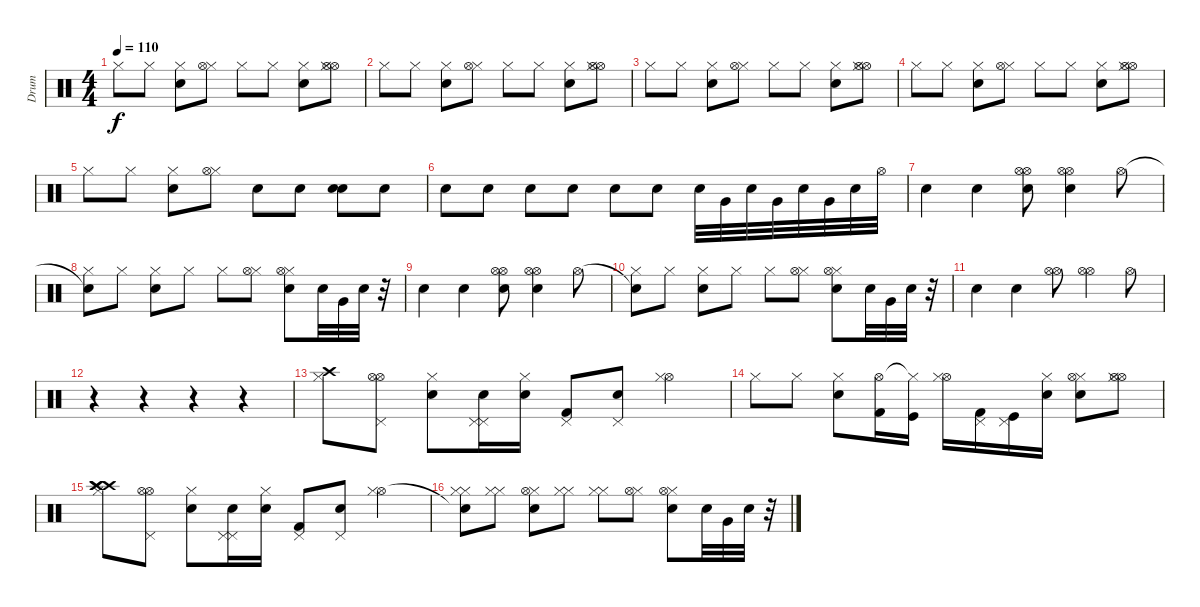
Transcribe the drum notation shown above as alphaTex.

\track ("Drum" "Drum") {instrument percussion}
\staff {score}
\articulation defaults
\ts (4 4)
\tempo 110
\clef neutral
\ks c "Hi-Hat (closed)".8{dy f} "Hi-Hat (closed)".8
("Electric Snare (hit)" "Hi-Hat (closed)").8 ("Hi-Hat (closed)" "Hi-Hat (open)").8 "Hi-Hat (closed)".8 "Hi-Hat (closed)".8 ("Electric Snare (hit)" "Hi-Hat (closed)").8 ("Hi-Hat (open)" "Hi-Hat (closed)" "Hi-Hat (open)").8 |
"Hi-Hat (closed)".8 "Hi-Hat (closed)".8 ("Electric Snare (hit)" "Hi-Hat (closed)").8 ("Hi-Hat (closed)" "Hi-Hat (open)").8 "Hi-Hat (closed)".8 "Hi-Hat (closed)".8 ("Electric Snare (hit)" "Hi-Hat (closed)").8 ("Hi-Hat (open)" "Hi-Hat (closed)" "Hi-Hat (open)").8 |
"Hi-Hat (closed)".8 "Hi-Hat (closed)".8 ("Electric Snare (hit)" "Hi-Hat (closed)").8 ("Hi-Hat (closed)" "Hi-Hat (open)").8 "Hi-Hat (closed)".8 "Hi-Hat (closed)".8 ("Electric Snare (hit)" "Hi-Hat (closed)").8 ("Hi-Hat (open)" "Hi-Hat (closed)" "Hi-Hat (open)").8 |
"Hi-Hat (closed)".8 "Hi-Hat (closed)".8 ("Electric Snare (hit)" "Hi-Hat (closed)").8 ("Hi-Hat (closed)" "Hi-Hat (open)").8 "Hi-Hat (closed)".8 "Hi-Hat (closed)".8 ("Electric Snare (hit)" "Hi-Hat (closed)").8 ("Hi-Hat (open)" "Hi-Hat (closed)" "Hi-Hat (open)").8 |
"Hi-Hat (closed)".8 "Hi-Hat (closed)".8 ("Electric Snare (hit)" "Hi-Hat (closed)").8 ("Hi-Hat (closed)" "Hi-Hat (open)").8 "Electric Snare (hit)".8 "Electric Snare (hit)".8 ("Electric Snare (hit)" "Electric Snare (hit)").8 "Electric Snare (hit)".8 |
"Electric Snare (hit)".8 "Electric Snare (hit)".8 "Electric Snare (hit)".8 "Electric Snare (hit)".8 "Electric Snare (hit)".8 "Electric Snare (hit)".8 "Electric Snare (hit)".32 "Very Low Tom (hit)".32 "Electric Snare (hit)".32 "Very Low Tom (hit)".32 "Electric Snare (hit)".32 "Very Low Tom (hit)".32 "Electric Snare (hit)".32 "Hi-Hat (open)".32 |
"Electric Snare (hit)".4 "Electric Snare (hit)".4 ("Hi-Hat (open)" "Hi-Hat (open)" "Electric Snare (hit)").8 ("Hi-Hat (open)" "Hi-Hat (open)" "Electric Snare (hit)").4 "Hi-Hat (open)".8 |
("Snare (hit)"{t} "Hi-Hat (closed)").8 "Hi-Hat (closed)".8 ("Electric Snare (hit)" "Hi-Hat (closed)").8 "Hi-Hat (closed)".8 "Hi-Hat (closed)".8 ("Hi-Hat (closed)" "Hi-Hat (open)").8 ("Electric Snare (hit)" "Hi-Hat (closed)" "Hi-Hat (open)").8 "Electric Snare (hit)".32 "Very Low Tom (hit)".32 "Electric Snare (hit)".32 r.32 |
"Electric Snare (hit)".4 "Electric Snare (hit)".4 ("Hi-Hat (open)" "Hi-Hat (open)" "Electric Snare (hit)").8 ("Hi-Hat (open)" "Hi-Hat (open)" "Electric Snare (hit)").4 "Hi-Hat (open)".8 |
("Snare (hit)"{t} "Hi-Hat (closed)").8 "Hi-Hat (closed)".8 ("Electric Snare (hit)" "Hi-Hat (closed)").8 "Hi-Hat (closed)".8 "Hi-Hat (closed)".8 ("Hi-Hat (closed)" "Hi-Hat (open)").8 ("Electric Snare (hit)" "Hi-Hat (closed)" "Hi-Hat (open)").8 "Electric Snare (hit)".32 "Very Low Tom (hit)".32 "Electric Snare (hit)".32 r.32 |
"Electric Snare (hit)".4 "Electric Snare (hit)".4 ("Hi-Hat (open)" "Hi-Hat (open)").8 ("Hi-Hat (open)" "Hi-Hat (open)").4 "Hi-Hat (open)".8 |
r.4 r.4 r.4 r.4 |
("Crash high (hit)" "Hi-Hat (closed)").8 ("Hi-Hat (open)" "Hi-Hat (open)" "Pedal Hi-Hat (hit)").8 ("Electric Snare (hit)" "Hi-Hat (closed)").8 ("Electric Snare (hit)" "Pedal Hi-Hat (hit)" "Pedal Hi-Hat (hit)").16 ("Hi-Hat (closed)" "Electric Snare (hit)").16 ("Pedal Hi-Hat (hit)" "Kick (hit) 2").8 ("Electric Snare (hit)" "Pedal Hi-Hat (hit)").8 ("Hi-Hat (open)" "Hi-Hat (closed)").4 |
"Hi-Hat (closed)".8 "Hi-Hat (closed)".8 ("Electric Snare (hit)" "Hi-Hat (closed)").8 ("Kick (hit) 2" "Hi-Hat (open)").16 ("Kick (hit)" "Hi-Hat (closed)"{t}).16 ("Hi-Hat (open)" "Hi-Hat (closed)").16 ("Kick (hit) 2" "Pedal Hi-Hat (hit)").16 ("Kick (hit)" "Pedal Hi-Hat (hit)").16 ("Electric Snare (hit)" "Hi-Hat (closed)").16 ("Electric Snare (hit)" "Hi-Hat (closed)" "Hi-Hat (open)").8 ("Hi-Hat (open)" "Hi-Hat (closed)" "Hi-Hat (open)").8 |
("Crash high (hit)" "Crash high (hit)" "Crash high (hit)" "Hi-Hat (closed)").8 ("Hi-Hat (open)" "Hi-Hat (open)" "Pedal Hi-Hat (hit)").8 ("Electric Snare (hit)" "Hi-Hat (closed)").8 ("Electric Snare (hit)" "Pedal Hi-Hat (hit)" "Pedal Hi-Hat (hit)").16 ("Hi-Hat (closed)" "Electric Snare (hit)").16 ("Pedal Hi-Hat (hit)" "Kick (hit) 2").8 ("Electric Snare (hit)" "Pedal Hi-Hat (hit)").8 ("Hi-Hat (open)" "Hi-Hat (closed)").4 |
("Snare (hit)"{t} "Hi-Hat (closed)" "Hi-Hat (closed)").8 ("Hi-Hat (closed)" "Hi-Hat (closed)").8 ("Electric Snare (hit)" "Hi-Hat (closed)" "Hi-Hat (open)").8 ("Hi-Hat (closed)" "Hi-Hat (closed)").8 ("Hi-Hat (closed)" "Hi-Hat (closed)").8 ("Hi-Hat (closed)" "Hi-Hat (open)").8 ("Electric Snare (hit)" "Hi-Hat (closed)" "Hi-Hat (open)").8 "Electric Snare (hit)".32 "Very Low Tom (hit)".32 "Electric Snare (hit)".32 r.32
